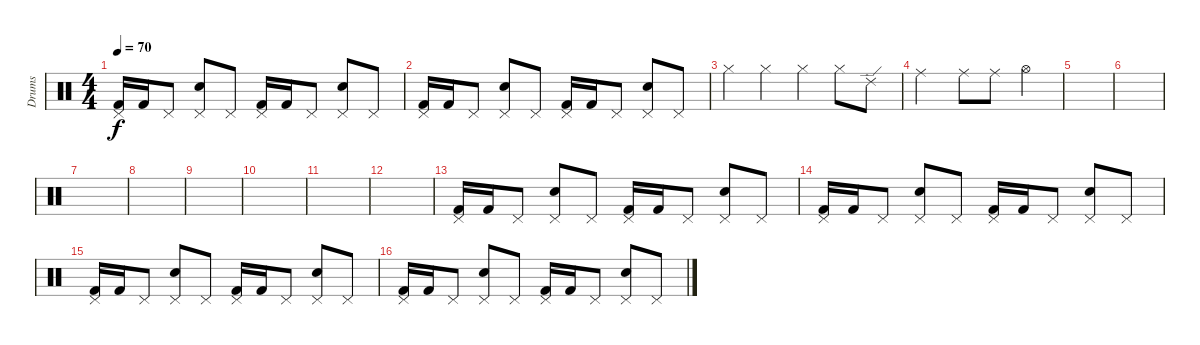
\track ("Drums" "Drums") {instrument percussion}
\staff {score}
\articulation defaults
\ts (4 4)
\tempo 70
\clef neutral
\ks c
("Pedal Hi-Hat (hit)" "Kick (hit) 2").16{dy f} "Kick (hit) 2".16 "Pedal Hi-Hat (hit)".8 ("Pedal Hi-Hat (hit)" "Electric Snare (hit)").8 "Pedal Hi-Hat (hit)".8 ("Pedal Hi-Hat (hit)" "Kick (hit) 2").16 "Kick (hit) 2".16 "Pedal Hi-Hat (hit)".8 ("Pedal Hi-Hat (hit)" "Electric Snare (hit)").8 "Pedal Hi-Hat (hit)".8 |
("Pedal Hi-Hat (hit)" "Kick (hit) 2").16 "Kick (hit) 2".16 "Pedal Hi-Hat (hit)".8 ("Pedal Hi-Hat (hit)" "Electric Snare (hit)").8 "Pedal Hi-Hat (hit)".8 ("Pedal Hi-Hat (hit)" "Kick (hit) 2").16 "Kick (hit) 2".16 "Pedal Hi-Hat (hit)".8 ("Pedal Hi-Hat (hit)" "Electric Snare (hit)").8 "Pedal Hi-Hat (hit)".8 |
"Hi-Hat (closed)".4 "Hi-Hat (closed)".4 "Hi-Hat (closed)".4 "Hi-Hat (closed)".8 "Ride (edge) 2".8 |
"Ride (middle)".2 "Ride (middle)".8 "Ride (middle)".8 "Hi-Hat (open)".4 |
|
|
|
|
|
|
|
|
("Pedal Hi-Hat (hit)" "Kick (hit) 2").16 "Kick (hit) 2".16 "Pedal Hi-Hat (hit)".8 ("Pedal Hi-Hat (hit)" "Electric Snare (hit)").8 "Pedal Hi-Hat (hit)".8 ("Pedal Hi-Hat (hit)" "Kick (hit) 2").16 "Kick (hit) 2".16 "Pedal Hi-Hat (hit)".8 ("Pedal Hi-Hat (hit)" "Electric Snare (hit)").8 "Pedal Hi-Hat (hit)".8 |
("Pedal Hi-Hat (hit)" "Kick (hit) 2").16 "Kick (hit) 2".16 "Pedal Hi-Hat (hit)".8 ("Pedal Hi-Hat (hit)" "Electric Snare (hit)").8 "Pedal Hi-Hat (hit)".8 ("Pedal Hi-Hat (hit)" "Kick (hit) 2").16 "Kick (hit) 2".16 "Pedal Hi-Hat (hit)".8 ("Pedal Hi-Hat (hit)" "Electric Snare (hit)").8 "Pedal Hi-Hat (hit)".8 |
("Pedal Hi-Hat (hit)" "Kick (hit) 2").16 "Kick (hit) 2".16 "Pedal Hi-Hat (hit)".8 ("Pedal Hi-Hat (hit)" "Electric Snare (hit)").8 "Pedal Hi-Hat (hit)".8 ("Pedal Hi-Hat (hit)" "Kick (hit) 2").16 "Kick (hit) 2".16 "Pedal Hi-Hat (hit)".8 ("Pedal Hi-Hat (hit)" "Electric Snare (hit)").8 "Pedal Hi-Hat (hit)".8 |
("Pedal Hi-Hat (hit)" "Kick (hit) 2").16 "Kick (hit) 2".16 "Pedal Hi-Hat (hit)".8 ("Pedal Hi-Hat (hit)" "Electric Snare (hit)").8 "Pedal Hi-Hat (hit)".8 ("Pedal Hi-Hat (hit)" "Kick (hit) 2").16 "Kick (hit) 2".16 "Pedal Hi-Hat (hit)".8 ("Pedal Hi-Hat (hit)" "Electric Snare (hit)").8 "Pedal Hi-Hat (hit)".8
